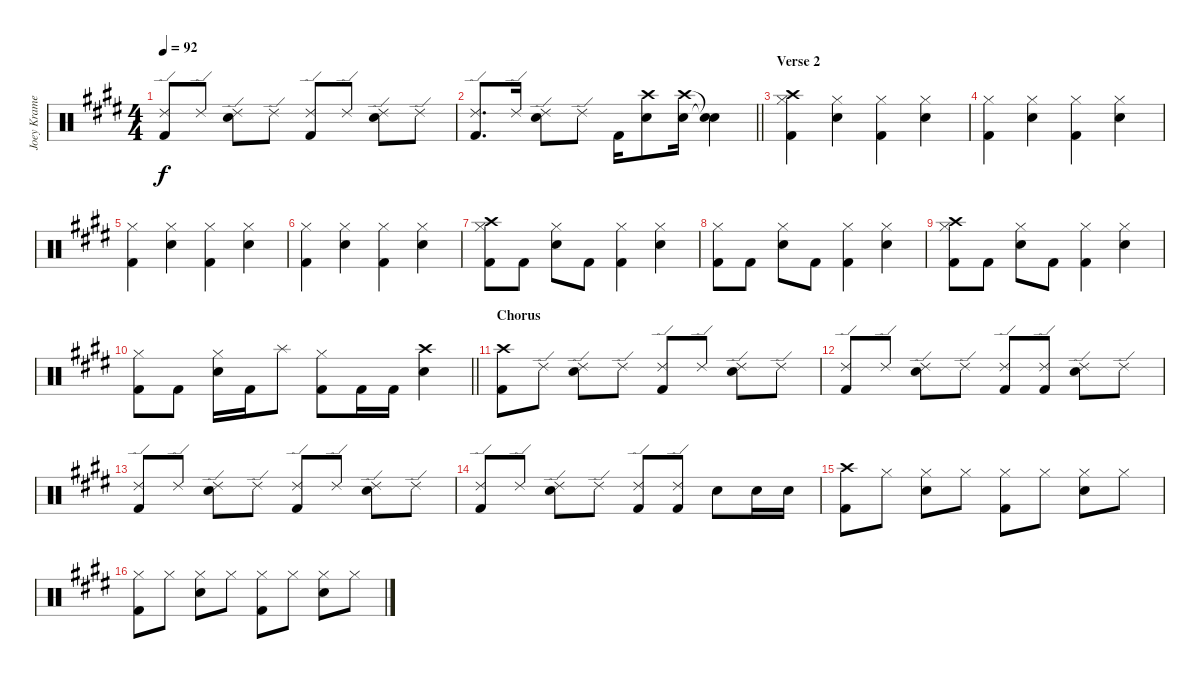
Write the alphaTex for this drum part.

\track ("Joey Kramer" "Joey Krame") {instrument percussion}
\staff {score}
\articulation defaults
\ts (4 4)
\tempo 92
\clef neutral
\ks e
("Ride (edge) 2" "Kick (hit) 2").8{dy f} "Ride (edge) 2".8 ("Ride (edge) 2" "Electric Snare (hit)").8 "Ride (edge) 2".8 ("Ride (edge) 2" "Kick (hit) 2").8 "Ride (edge) 2".8 ("Ride (edge) 2" "Electric Snare (hit)").8 "Ride (edge) 2".8 |
\barLineRight lightlight
("Ride (edge) 2" "Kick (hit) 2").8{d} "Ride (edge) 2".16 ("Ride (edge) 2" "Electric Snare (hit)").8 "Ride (edge) 2".8 "Kick (hit) 2".16 ("Crash high (hit)" "Electric Snare (hit)").8 ("Crash high (hit)" "Electric Snare (hit)").16 ("Snare (hit)"{t} "Snare (hit)"{t}).4 |
\section ("" "Verse 2")
("Crash high (hit)" "Hi-Hat (closed)" "Kick (hit) 2").4 ("Hi-Hat (closed)" "Electric Snare (hit)").4 ("Hi-Hat (closed)" "Kick (hit) 2").4 ("Hi-Hat (closed)" "Electric Snare (hit)").4 |
("Hi-Hat (closed)" "Kick (hit) 2").4 ("Hi-Hat (closed)" "Electric Snare (hit)").4 ("Hi-Hat (closed)" "Kick (hit) 2").4 ("Hi-Hat (closed)" "Electric Snare (hit)").4 |
("Hi-Hat (closed)" "Kick (hit) 2").4 ("Hi-Hat (closed)" "Electric Snare (hit)").4 ("Hi-Hat (closed)" "Kick (hit) 2").4 ("Hi-Hat (closed)" "Electric Snare (hit)").4 |
("Hi-Hat (closed)" "Kick (hit) 2").4 ("Hi-Hat (closed)" "Electric Snare (hit)").4 ("Hi-Hat (closed)" "Kick (hit) 2").4 ("Hi-Hat (closed)" "Electric Snare (hit)").4 |
("Crash high (hit)" "Hi-Hat (closed)" "Kick (hit) 2").8 "Kick (hit) 2".8 ("Hi-Hat (closed)" "Electric Snare (hit)").8 "Kick (hit) 2".8 ("Hi-Hat (closed)" "Kick (hit) 2").4 ("Hi-Hat (closed)" "Electric Snare (hit)").4 |
("Hi-Hat (closed)" "Kick (hit) 2").8 "Kick (hit) 2".8 ("Hi-Hat (closed)" "Electric Snare (hit)").8 "Kick (hit) 2".8 ("Hi-Hat (closed)" "Kick (hit) 2").4 ("Hi-Hat (closed)" "Electric Snare (hit)").4 |
("Crash high (hit)" "Hi-Hat (closed)" "Kick (hit) 2").8 "Kick (hit) 2".8 ("Hi-Hat (closed)" "Electric Snare (hit)").8 "Kick (hit) 2".8 ("Hi-Hat (closed)" "Kick (hit) 2").4 ("Hi-Hat (closed)" "Electric Snare (hit)").4 |
\barLineRight lightlight
("Hi-Hat (closed)" "Kick (hit) 2").8 "Kick (hit) 2".8 ("Hi-Hat (closed)" "Electric Snare (hit)").16 "Kick (hit) 2".16 "Splash (hit)".8 ("Hi-Hat (closed)" "Kick (hit) 2").8 "Kick (hit) 2".16 "Kick (hit) 2".16 ("Crash high (hit)" "Electric Snare (hit)").4 |
\section ("" "Chorus")
("Crash high (hit)" "Kick (hit) 2").8 "Ride (edge) 2".8 ("Ride (edge) 2" "Electric Snare (hit)").8 "Ride (edge) 2".8 ("Ride (edge) 2" "Kick (hit) 2").8 "Ride (edge) 2".8 ("Ride (edge) 2" "Electric Snare (hit)").8 "Ride (edge) 2".8 |
("Ride (edge) 2" "Kick (hit) 2").8 "Ride (edge) 2".8 ("Ride (edge) 2" "Electric Snare (hit)").8 "Ride (edge) 2".8 ("Ride (edge) 2" "Kick (hit) 2").8 ("Ride (edge) 2" "Kick (hit) 2").8 ("Ride (edge) 2" "Electric Snare (hit)").8 "Ride (edge) 2".8 |
("Ride (edge) 2" "Kick (hit) 2").8 "Ride (edge) 2".8 ("Ride (edge) 2" "Electric Snare (hit)").8 "Ride (edge) 2".8 ("Ride (edge) 2" "Kick (hit) 2").8 "Ride (edge) 2".8 ("Ride (edge) 2" "Electric Snare (hit)").8 "Ride (edge) 2".8 |
("Ride (edge) 2" "Kick (hit) 2").8 "Ride (edge) 2".8 ("Ride (edge) 2" "Electric Snare (hit)").8 "Ride (edge) 2".8 ("Ride (edge) 2" "Kick (hit) 2").8 ("Ride (edge) 2" "Kick (hit) 2").8 "Electric Snare (hit)".8 "Electric Snare (hit)".16 "Electric Snare (hit)".16 |
("Crash high (hit)" "Kick (hit) 2").8 "Hi-Hat (closed)".8 ("Hi-Hat (closed)" "Electric Snare (hit)").8 "Hi-Hat (closed)".8 ("Hi-Hat (closed)" "Kick (hit) 2").8 "Hi-Hat (closed)".8 ("Hi-Hat (closed)" "Electric Snare (hit)").8 "Hi-Hat (closed)".8 |
("Hi-Hat (closed)" "Kick (hit) 2").8 "Hi-Hat (closed)".8 ("Hi-Hat (closed)" "Electric Snare (hit)").8 "Hi-Hat (closed)".8 ("Hi-Hat (closed)" "Kick (hit) 2").8 "Hi-Hat (closed)".8 ("Hi-Hat (closed)" "Electric Snare (hit)").8 "Hi-Hat (closed)".8
